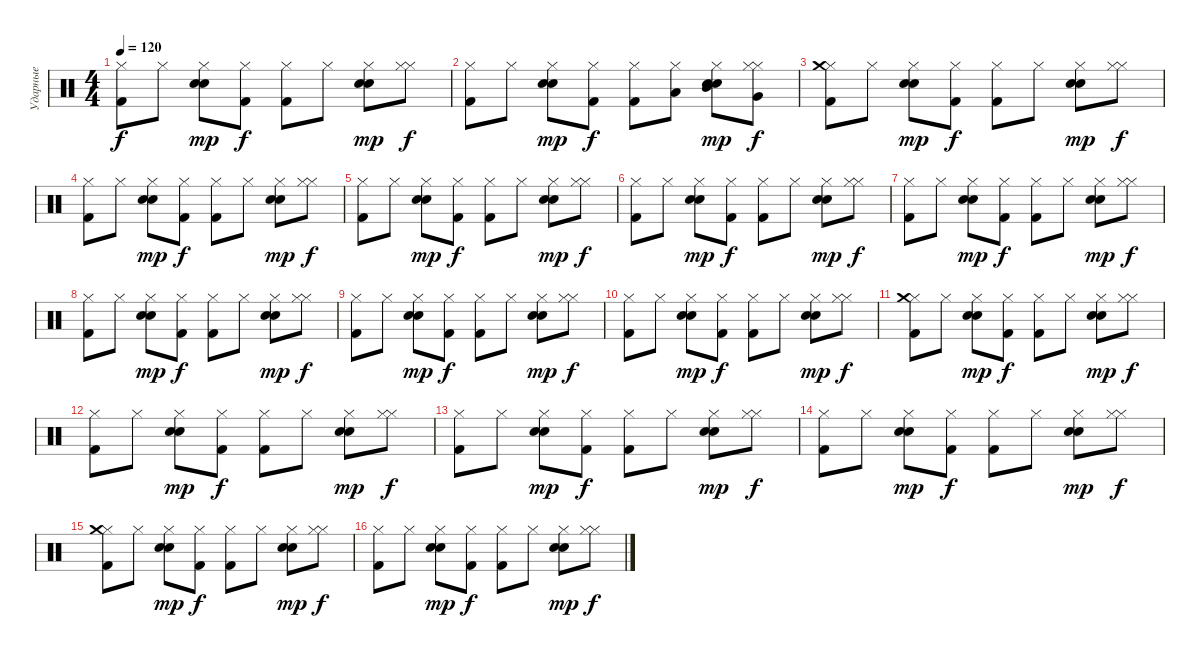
\track ("Ударные" "Ударные") {instrument percussion}
\staff {score}
\articulation defaults
\ts (4 4)
\tempo 120
\clef neutral
\ks c
("Kick (hit) 2" "Hi-Hat (closed)").8{dy f} "Hi-Hat (closed)".8 ("Hand Clap (hit)" "Hi-Hat (closed)" "Electric Snare (hit)").8{dy mp} ("Kick (hit) 2" "Hi-Hat (closed)").8{dy f} ("Kick (hit) 2" "Hi-Hat (closed)").8 "Hi-Hat (closed)".8 ("Hand Clap (hit)" "Hi-Hat (closed)" "Electric Snare (hit)").8{dy mp} ("Hi-Hat (closed)" "Hi-Hat (closed)").8{dy f} |
("Kick (hit) 2" "Hi-Hat (closed)").8 "Hi-Hat (closed)".8 ("Hand Clap (hit)" "Hi-Hat (closed)" "Electric Snare (hit)").8{dy mp} ("Kick (hit) 2" "Hi-Hat (closed)").8{dy f} ("Kick (hit) 2" "Hi-Hat (closed)").8 ("Hi-Hat (closed)" "Low Tom (hit)").8 ("Hand Clap (hit)" "Hi-Hat (closed)" "Electric Snare (hit)" "Mid Tom (hit)").8{dy mp} ("Hi-Hat (closed)" "Hi-Hat (closed)" "Very Low Tom (hit)").8{dy f} |
("Kick (hit) 2" "Hi-Hat (closed)" "Crash medium (hit)").8 "Hi-Hat (closed)".8 ("Hand Clap (hit)" "Hi-Hat (closed)" "Electric Snare (hit)").8{dy mp} ("Kick (hit) 2" "Hi-Hat (closed)").8{dy f} ("Kick (hit) 2" "Hi-Hat (closed)").8 "Hi-Hat (closed)".8 ("Hand Clap (hit)" "Hi-Hat (closed)" "Electric Snare (hit)").8{dy mp} ("Hi-Hat (closed)" "Hi-Hat (closed)").8{dy f} |
("Kick (hit) 2" "Hi-Hat (closed)").8 "Hi-Hat (closed)".8 ("Hand Clap (hit)" "Hi-Hat (closed)" "Electric Snare (hit)").8{dy mp} ("Kick (hit) 2" "Hi-Hat (closed)").8{dy f} ("Kick (hit) 2" "Hi-Hat (closed)").8 "Hi-Hat (closed)".8 ("Hand Clap (hit)" "Hi-Hat (closed)" "Electric Snare (hit)").8{dy mp} ("Hi-Hat (closed)" "Hi-Hat (closed)").8{dy f} |
("Kick (hit) 2" "Hi-Hat (closed)").8 "Hi-Hat (closed)".8 ("Hand Clap (hit)" "Hi-Hat (closed)" "Electric Snare (hit)").8{dy mp} ("Kick (hit) 2" "Hi-Hat (closed)").8{dy f} ("Kick (hit) 2" "Hi-Hat (closed)").8 "Hi-Hat (closed)".8 ("Hand Clap (hit)" "Hi-Hat (closed)" "Electric Snare (hit)").8{dy mp} ("Hi-Hat (closed)" "Hi-Hat (closed)").8{dy f} |
("Kick (hit) 2" "Hi-Hat (closed)").8 "Hi-Hat (closed)".8 ("Hand Clap (hit)" "Hi-Hat (closed)" "Electric Snare (hit)").8{dy mp} ("Kick (hit) 2" "Hi-Hat (closed)").8{dy f} ("Kick (hit) 2" "Hi-Hat (closed)").8 "Hi-Hat (closed)".8 ("Hand Clap (hit)" "Hi-Hat (closed)" "Electric Snare (hit)").8{dy mp} ("Hi-Hat (closed)" "Hi-Hat (closed)").8{dy f} |
("Kick (hit) 2" "Hi-Hat (closed)").8 "Hi-Hat (closed)".8 ("Hand Clap (hit)" "Hi-Hat (closed)" "Electric Snare (hit)").8{dy mp} ("Kick (hit) 2" "Hi-Hat (closed)").8{dy f} ("Kick (hit) 2" "Hi-Hat (closed)").8 "Hi-Hat (closed)".8 ("Hand Clap (hit)" "Hi-Hat (closed)" "Electric Snare (hit)").8{dy mp} ("Hi-Hat (closed)" "Hi-Hat (closed)").8{dy f} |
("Kick (hit) 2" "Hi-Hat (closed)").8 "Hi-Hat (closed)".8 ("Hand Clap (hit)" "Hi-Hat (closed)" "Electric Snare (hit)").8{dy mp} ("Kick (hit) 2" "Hi-Hat (closed)").8{dy f} ("Kick (hit) 2" "Hi-Hat (closed)").8 "Hi-Hat (closed)".8 ("Hand Clap (hit)" "Hi-Hat (closed)" "Electric Snare (hit)").8{dy mp} ("Hi-Hat (closed)" "Hi-Hat (closed)").8{dy f} |
("Kick (hit) 2" "Hi-Hat (closed)").8 "Hi-Hat (closed)".8 ("Hand Clap (hit)" "Hi-Hat (closed)" "Electric Snare (hit)").8{dy mp} ("Kick (hit) 2" "Hi-Hat (closed)").8{dy f} ("Kick (hit) 2" "Hi-Hat (closed)").8 "Hi-Hat (closed)".8 ("Hand Clap (hit)" "Hi-Hat (closed)" "Electric Snare (hit)").8{dy mp} ("Hi-Hat (closed)" "Hi-Hat (closed)").8{dy f} |
("Kick (hit) 2" "Hi-Hat (closed)").8 "Hi-Hat (closed)".8 ("Hand Clap (hit)" "Hi-Hat (closed)" "Electric Snare (hit)").8{dy mp} ("Kick (hit) 2" "Hi-Hat (closed)").8{dy f} ("Kick (hit) 2" "Hi-Hat (closed)").8 "Hi-Hat (closed)".8 ("Hand Clap (hit)" "Hi-Hat (closed)" "Electric Snare (hit)").8{dy mp} ("Hi-Hat (closed)" "Hi-Hat (closed)").8{dy f} |
("Kick (hit) 2" "Hi-Hat (closed)" "Crash medium (hit)").8 "Hi-Hat (closed)".8 ("Hand Clap (hit)" "Hi-Hat (closed)" "Electric Snare (hit)").8{dy mp} ("Kick (hit) 2" "Hi-Hat (closed)").8{dy f} ("Kick (hit) 2" "Hi-Hat (closed)").8 "Hi-Hat (closed)".8 ("Hand Clap (hit)" "Hi-Hat (closed)" "Electric Snare (hit)").8{dy mp} ("Hi-Hat (closed)" "Hi-Hat (closed)").8{dy f} |
("Kick (hit) 2" "Hi-Hat (closed)").8 "Hi-Hat (closed)".8 ("Hand Clap (hit)" "Hi-Hat (closed)" "Electric Snare (hit)").8{dy mp} ("Kick (hit) 2" "Hi-Hat (closed)").8{dy f} ("Kick (hit) 2" "Hi-Hat (closed)").8 "Hi-Hat (closed)".8 ("Hand Clap (hit)" "Hi-Hat (closed)" "Electric Snare (hit)").8{dy mp} ("Hi-Hat (closed)" "Hi-Hat (closed)").8{dy f} |
("Kick (hit) 2" "Hi-Hat (closed)").8 "Hi-Hat (closed)".8 ("Hand Clap (hit)" "Hi-Hat (closed)" "Electric Snare (hit)").8{dy mp} ("Kick (hit) 2" "Hi-Hat (closed)").8{dy f} ("Kick (hit) 2" "Hi-Hat (closed)").8 "Hi-Hat (closed)".8 ("Hand Clap (hit)" "Hi-Hat (closed)" "Electric Snare (hit)").8{dy mp} ("Hi-Hat (closed)" "Hi-Hat (closed)").8{dy f} |
("Kick (hit) 2" "Hi-Hat (closed)").8 "Hi-Hat (closed)".8 ("Hand Clap (hit)" "Hi-Hat (closed)" "Electric Snare (hit)").8{dy mp} ("Kick (hit) 2" "Hi-Hat (closed)").8{dy f} ("Kick (hit) 2" "Hi-Hat (closed)").8 "Hi-Hat (closed)".8 ("Hand Clap (hit)" "Hi-Hat (closed)" "Electric Snare (hit)").8{dy mp} ("Hi-Hat (closed)" "Hi-Hat (closed)").8{dy f} |
("Kick (hit) 2" "Hi-Hat (closed)" "Crash medium (hit)").8 "Hi-Hat (closed)".8 ("Hand Clap (hit)" "Hi-Hat (closed)" "Electric Snare (hit)").8{dy mp} ("Kick (hit) 2" "Hi-Hat (closed)").8{dy f} ("Kick (hit) 2" "Hi-Hat (closed)").8 "Hi-Hat (closed)".8 ("Hand Clap (hit)" "Hi-Hat (closed)" "Electric Snare (hit)").8{dy mp} ("Hi-Hat (closed)" "Hi-Hat (closed)").8{dy f} |
("Kick (hit) 2" "Hi-Hat (closed)").8 "Hi-Hat (closed)".8 ("Hand Clap (hit)" "Hi-Hat (closed)" "Electric Snare (hit)").8{dy mp} ("Kick (hit) 2" "Hi-Hat (closed)").8{dy f} ("Kick (hit) 2" "Hi-Hat (closed)").8 "Hi-Hat (closed)".8 ("Hand Clap (hit)" "Hi-Hat (closed)" "Electric Snare (hit)").8{dy mp} ("Hi-Hat (closed)" "Hi-Hat (closed)").8{dy f}
